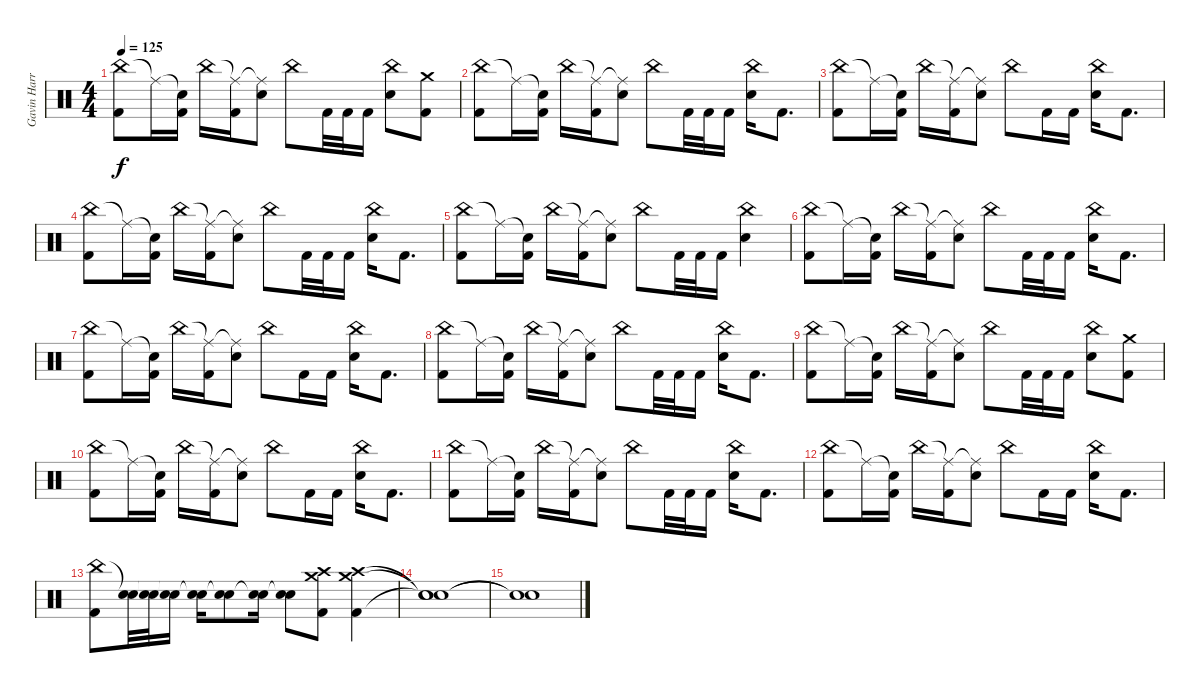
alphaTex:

\track ("Gavin Harrison" "Gavin Harr") {instrument percussion}
\staff {score}
\articulation defaults
\ts (4 4)
\tempo 125
\clef neutral
\ks c
("China (hit)" "Kick (hit) 2").8{dy f} "Ride (middle)"{t}.16 ("Snare (hit)"{t} "Kick (hit) 2").16 "China (hit)".16 ("Ride (middle)"{t} "Kick (hit) 2").16 ("Ride (middle)"{t} "Electric Snare (hit)").8 "China (hit)".8 "Kick (hit) 2".32 "Kick (hit) 2".32 "Kick (hit) 2".16 ("China (hit)" "Electric Snare (hit)").8 ("Crash medium (hit)" "Kick (hit) 2").8 |
("China (hit)" "Kick (hit) 2").8 "Ride (middle)"{t}.16 ("Snare (hit)"{t} "Kick (hit) 2").16 "China (hit)".16 ("Ride (middle)"{t} "Kick (hit) 2").16 ("Ride (middle)"{t} "Electric Snare (hit)").8 "China (hit)".8 "Kick (hit) 2".32 "Kick (hit) 2".32 "Kick (hit) 2".16 ("China (hit)" "Electric Snare (hit)").16 "Kick (hit) 2".8{d} |
("China (hit)" "Kick (hit) 2").8 "Ride (middle)"{t}.16 ("Snare (hit)"{t} "Kick (hit) 2").16 "China (hit)".16 ("Ride (middle)"{t} "Kick (hit) 2").16 ("Ride (middle)"{t} "Electric Snare (hit)").8 "China (hit)".8 "Kick (hit) 2".16 "Kick (hit) 2".16 ("China (hit)" "Electric Snare (hit)").16 "Kick (hit) 2".8{d} |
("China (hit)" "Kick (hit) 2").8 "Ride (middle)"{t}.16 ("Snare (hit)"{t} "Kick (hit) 2").16 "China (hit)".16 ("Ride (middle)"{t} "Kick (hit) 2").16 ("Ride (middle)"{t} "Electric Snare (hit)").8 "China (hit)".8 "Kick (hit) 2".32 "Kick (hit) 2".32 "Kick (hit) 2".16 ("China (hit)" "Electric Snare (hit)").16 "Kick (hit) 2".8{d} |
("China (hit)" "Kick (hit) 2").8 "Ride (middle)"{t}.16 ("Snare (hit)"{t} "Kick (hit) 2").16 "China (hit)".16 ("Ride (middle)"{t} "Kick (hit) 2").16 ("Ride (middle)"{t} "Electric Snare (hit)").8 "China (hit)".8 "Kick (hit) 2".32 "Kick (hit) 2".32 "Kick (hit) 2".16 ("China (hit)" "Electric Snare (hit)").4 |
("China (hit)" "Kick (hit) 2").8 "Ride (middle)"{t}.16 ("Snare (hit)"{t} "Kick (hit) 2").16 "China (hit)".16 ("Ride (middle)"{t} "Kick (hit) 2").16 ("Ride (middle)"{t} "Electric Snare (hit)").8 "China (hit)".8 "Kick (hit) 2".32 "Kick (hit) 2".32 "Kick (hit) 2".16 ("China (hit)" "Electric Snare (hit)").16 "Kick (hit) 2".8{d} |
("China (hit)" "Kick (hit) 2").8 "Ride (middle)"{t}.16 ("Snare (hit)"{t} "Kick (hit) 2").16 "China (hit)".16 ("Ride (middle)"{t} "Kick (hit) 2").16 ("Ride (middle)"{t} "Electric Snare (hit)").8 "China (hit)".8 "Kick (hit) 2".16 "Kick (hit) 2".16 ("China (hit)" "Electric Snare (hit)").16 "Kick (hit) 2".8{d} |
("China (hit)" "Kick (hit) 2").8 "Ride (middle)"{t}.16 ("Snare (hit)"{t} "Kick (hit) 2").16 "China (hit)".16 ("Ride (middle)"{t} "Kick (hit) 2").16 ("Ride (middle)"{t} "Electric Snare (hit)").8 "China (hit)".8 "Kick (hit) 2".32 "Kick (hit) 2".32 "Kick (hit) 2".16 ("China (hit)" "Electric Snare (hit)").16 "Kick (hit) 2".8{d} |
("China (hit)" "Kick (hit) 2").8 "Ride (middle)"{t}.16 ("Snare (hit)"{t} "Kick (hit) 2").16 "China (hit)".16 ("Ride (middle)"{t} "Kick (hit) 2").16 ("Ride (middle)"{t} "Electric Snare (hit)").8 "China (hit)".8 "Kick (hit) 2".32 "Kick (hit) 2".32 "Kick (hit) 2".16 ("China (hit)" "Electric Snare (hit)").8 ("Crash medium (hit)" "Kick (hit) 2").8 |
("China (hit)" "Kick (hit) 2").8 "Ride (middle)"{t}.16 ("Snare (hit)"{t} "Kick (hit) 2").16 "China (hit)".16 ("Ride (middle)"{t} "Kick (hit) 2").16 ("Ride (middle)"{t} "Electric Snare (hit)").8 "China (hit)".8 "Kick (hit) 2".16 "Kick (hit) 2".16 ("China (hit)" "Electric Snare (hit)").16 "Kick (hit) 2".8{d} |
("China (hit)" "Kick (hit) 2").8 "Ride (middle)"{t}.16 ("Snare (hit)"{t} "Kick (hit) 2").16 "China (hit)".16 ("Ride (middle)"{t} "Kick (hit) 2").16 ("Ride (middle)"{t} "Electric Snare (hit)").8 "China (hit)".8 "Kick (hit) 2".32 "Kick (hit) 2".32 "Kick (hit) 2".16 ("China (hit)" "Electric Snare (hit)").16 "Kick (hit) 2".8{d} |
("China (hit)" "Kick (hit) 2").8 "Ride (middle)"{t}.16 ("Snare (hit)"{t} "Kick (hit) 2").16 "China (hit)".16 ("Ride (middle)"{t} "Kick (hit) 2").16 ("Ride (middle)"{t} "Electric Snare (hit)").8 "China (hit)".8 "Kick (hit) 2".16 "Kick (hit) 2".16 ("China (hit)" "Electric Snare (hit)").16 "Kick (hit) 2".8{d} |
("China (hit)" "Kick (hit) 2").8 ("Snare (hit)"{t} "Electric Snare (hit)").32 ("Snare (hit)"{t} "Electric Snare (hit)").32 ("Snare (hit)"{t} "Electric Snare (hit)").16 ("Snare (hit)"{t} "Electric Snare (hit)").16 ("Snare (hit)"{t} "Electric Snare (hit)").8 ("Snare (hit)"{t} "Electric Snare (hit)").16 ("Snare (hit)"{t} "Electric Snare (hit)").8 ("Crash medium (hit)" "Crash high (hit)" "Kick (hit) 2").8 ("Crash medium (hit)" "Crash high (hit)" "Kick (hit) 2").4 |
("Snare (hit)"{t} "Snare (hit)"{t} "Snare (hit)"{t}).1 |
("Snare (hit)"{t} "Snare (hit)"{t}).1
